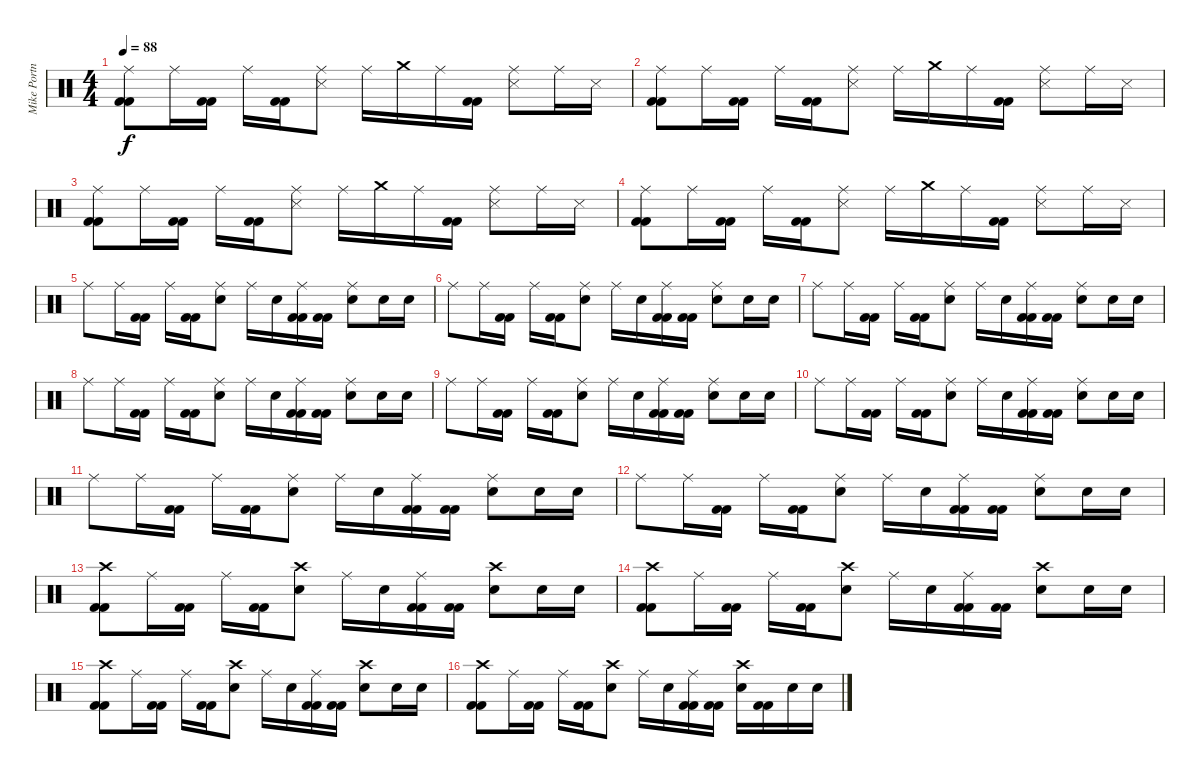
\track ("Mike Portnoy" "Mike Portn") {instrument percussion}
\staff {score}
\articulation defaults
\ts (4 4)
\tempo 88
\clef neutral
\ks c
("Ride (middle)" "Kick (hit) 2" "Kick (hit) 2").8{dy f} "Ride (middle)".16 ("Kick (hit) 2" "Kick (hit) 2").16 "Ride (middle)".16 ("Kick (hit) 2" "Kick (hit) 2").16 ("Ride (middle)" "Snare (side stick) 3").8 "Ride (middle)".16 "Crash medium (hit)".16 "Ride (middle)".16 ("Kick (hit) 2" "Kick (hit) 2").16 ("Ride (middle)" "Snare (side stick) 3").8 "Ride (middle)".16 "Snare (side stick) 3".16 |
("Ride (middle)" "Kick (hit) 2" "Kick (hit) 2").8 "Ride (middle)".16 ("Kick (hit) 2" "Kick (hit) 2").16 "Ride (middle)".16 ("Kick (hit) 2" "Kick (hit) 2").16 ("Ride (middle)" "Snare (side stick) 3").8 "Ride (middle)".16 "Crash medium (hit)".16 "Ride (middle)".16 ("Kick (hit) 2" "Kick (hit) 2").16 ("Ride (middle)" "Snare (side stick) 3").8 "Ride (middle)".16 "Snare (side stick) 3".16 |
("Ride (middle)" "Kick (hit) 2" "Kick (hit) 2").8 "Ride (middle)".16 ("Kick (hit) 2" "Kick (hit) 2").16 "Ride (middle)".16 ("Kick (hit) 2" "Kick (hit) 2").16 ("Ride (middle)" "Snare (side stick) 3").8 "Ride (middle)".16 "Crash medium (hit)".16 "Ride (middle)".16 ("Kick (hit) 2" "Kick (hit) 2").16 ("Ride (middle)" "Snare (side stick) 3").8 "Ride (middle)".16 "Snare (side stick) 3".16 |
("Ride (middle)" "Kick (hit) 2" "Kick (hit) 2").8 "Ride (middle)".16 ("Kick (hit) 2" "Kick (hit) 2").16 "Ride (middle)".16 ("Kick (hit) 2" "Kick (hit) 2").16 ("Ride (middle)" "Snare (side stick) 3").8 "Ride (middle)".16 "Crash medium (hit)".16 "Ride (middle)".16 ("Kick (hit) 2" "Kick (hit) 2").16 ("Ride (middle)" "Snare (side stick) 3").8 "Ride (middle)".16 "Snare (side stick) 3".16 |
"Ride (middle)".8 "Ride (middle)".16 ("Kick (hit) 2" "Kick (hit) 2").16 "Ride (middle)".16 ("Kick (hit) 2" "Kick (hit) 2").16 ("Ride (middle)" "Snare (hit) 2").8 "Ride (middle)".16 "Snare (hit) 2".16 ("Ride (middle)" "Kick (hit) 2" "Kick (hit) 2").16 ("Kick (hit) 2" "Kick (hit) 2").16 ("Ride (middle)" "Snare (hit) 2").8 "Snare (hit) 2".16 "Snare (hit) 2".16 |
"Ride (middle)".8 "Ride (middle)".16 ("Kick (hit) 2" "Kick (hit) 2").16 "Ride (middle)".16 ("Kick (hit) 2" "Kick (hit) 2").16 ("Ride (middle)" "Snare (hit) 2").8 "Ride (middle)".16 "Snare (hit) 2".16 ("Ride (middle)" "Kick (hit) 2" "Kick (hit) 2").16 ("Kick (hit) 2" "Kick (hit) 2").16 ("Ride (middle)" "Snare (hit) 2").8 "Snare (hit) 2".16 "Snare (hit) 2".16 |
"Ride (middle)".8 "Ride (middle)".16 ("Kick (hit) 2" "Kick (hit) 2").16 "Ride (middle)".16 ("Kick (hit) 2" "Kick (hit) 2").16 ("Ride (middle)" "Snare (hit) 2").8 "Ride (middle)".16 "Snare (hit) 2".16 ("Ride (middle)" "Kick (hit) 2" "Kick (hit) 2").16 ("Kick (hit) 2" "Kick (hit) 2").16 ("Ride (middle)" "Snare (hit) 2").8 "Snare (hit) 2".16 "Snare (hit) 2".16 |
"Ride (middle)".8 "Ride (middle)".16 ("Kick (hit) 2" "Kick (hit) 2").16 "Ride (middle)".16 ("Kick (hit) 2" "Kick (hit) 2").16 ("Ride (middle)" "Snare (hit) 2").8 "Ride (middle)".16 "Snare (hit) 2".16 ("Ride (middle)" "Kick (hit) 2" "Kick (hit) 2").16 ("Kick (hit) 2" "Kick (hit) 2").16 ("Ride (middle)" "Snare (hit) 2").8 "Snare (hit) 2".16 "Snare (hit) 2".16 |
"Ride (middle)".8 "Ride (middle)".16 ("Kick (hit) 2" "Kick (hit) 2").16 "Ride (middle)".16 ("Kick (hit) 2" "Kick (hit) 2").16 ("Ride (middle)" "Snare (hit) 2").8 "Ride (middle)".16 "Snare (hit) 2".16 ("Ride (middle)" "Kick (hit) 2" "Kick (hit) 2").16 ("Kick (hit) 2" "Kick (hit) 2").16 ("Ride (middle)" "Snare (hit) 2").8 "Snare (hit) 2".16 "Snare (hit) 2".16 |
"Ride (middle)".8 "Ride (middle)".16 ("Kick (hit) 2" "Kick (hit) 2").16 "Ride (middle)".16 ("Kick (hit) 2" "Kick (hit) 2").16 ("Ride (middle)" "Snare (hit) 2").8 "Ride (middle)".16 "Snare (hit) 2".16 ("Ride (middle)" "Kick (hit) 2" "Kick (hit) 2").16 ("Kick (hit) 2" "Kick (hit) 2").16 ("Ride (middle)" "Snare (hit) 2").8 "Snare (hit) 2".16 "Snare (hit) 2".16 |
"Ride (middle)".8 "Ride (middle)".16 ("Kick (hit) 2" "Kick (hit) 2").16 "Ride (middle)".16 ("Kick (hit) 2" "Kick (hit) 2").16 ("Ride (middle)" "Snare (hit) 2").8 "Ride (middle)".16 "Snare (hit) 2".16 ("Ride (middle)" "Kick (hit) 2" "Kick (hit) 2").16 ("Kick (hit) 2" "Kick (hit) 2").16 ("Ride (middle)" "Snare (hit) 2").8 "Snare (hit) 2".16 "Snare (hit) 2".16 |
"Ride (middle)".8 "Ride (middle)".16 ("Kick (hit) 2" "Kick (hit) 2").16 "Ride (middle)".16 ("Kick (hit) 2" "Kick (hit) 2").16 ("Ride (middle)" "Snare (hit) 2").8 "Ride (middle)".16 "Snare (hit) 2".16 ("Ride (middle)" "Kick (hit) 2" "Kick (hit) 2").16 ("Kick (hit) 2" "Kick (hit) 2").16 ("Ride (middle)" "Snare (hit) 2").8 "Snare (hit) 2".16 "Snare (hit) 2".16 |
("Crash high (hit)" "Kick (hit) 2" "Kick (hit) 2").8 "Ride (middle)".16 ("Kick (hit) 2" "Kick (hit) 2").16 "Ride (middle)".16 ("Kick (hit) 2" "Kick (hit) 2").16 ("Crash high (hit)" "Snare (hit) 2").8 "Ride (middle)".16 "Snare (hit) 2".16 ("Ride (middle)" "Kick (hit) 2" "Kick (hit) 2").16 ("Kick (hit) 2" "Kick (hit) 2").16 ("Crash high (hit)" "Snare (hit) 2").8 "Snare (hit) 2".16 "Snare (hit) 2".16 |
("Crash high (hit)" "Kick (hit) 2" "Kick (hit) 2").8 "Ride (middle)".16 ("Kick (hit) 2" "Kick (hit) 2").16 "Ride (middle)".16 ("Kick (hit) 2" "Kick (hit) 2").16 ("Crash high (hit)" "Snare (hit) 2").8 "Ride (middle)".16 "Snare (hit) 2".16 ("Ride (middle)" "Kick (hit) 2" "Kick (hit) 2").16 ("Kick (hit) 2" "Kick (hit) 2").16 ("Crash high (hit)" "Snare (hit) 2").8 "Snare (hit) 2".16 "Snare (hit) 2".16 |
("Crash high (hit)" "Kick (hit) 2" "Kick (hit) 2").8 "Ride (middle)".16 ("Kick (hit) 2" "Kick (hit) 2").16 "Ride (middle)".16 ("Kick (hit) 2" "Kick (hit) 2").16 ("Crash high (hit)" "Snare (hit) 2").8 "Ride (middle)".16 "Snare (hit) 2".16 ("Ride (middle)" "Kick (hit) 2" "Kick (hit) 2").16 ("Kick (hit) 2" "Kick (hit) 2").16 ("Crash high (hit)" "Snare (hit) 2").8 "Snare (hit) 2".16 "Snare (hit) 2".16 |
("Crash high (hit)" "Kick (hit) 2" "Kick (hit) 2").8 "Ride (middle)".16 ("Kick (hit) 2" "Kick (hit) 2").16 "Ride (middle)".16 ("Kick (hit) 2" "Kick (hit) 2").16 ("Crash high (hit)" "Snare (hit) 2").8 "Ride (middle)".16 "Snare (hit) 2".16 ("Ride (middle)" "Kick (hit) 2" "Kick (hit) 2").16 ("Kick (hit) 2" "Kick (hit) 2").16 ("Crash high (hit)" "Snare (hit) 2").16 ("Kick (hit) 2" "Kick (hit) 2").16 "Snare (hit) 2".16 "Snare (hit) 2".16
